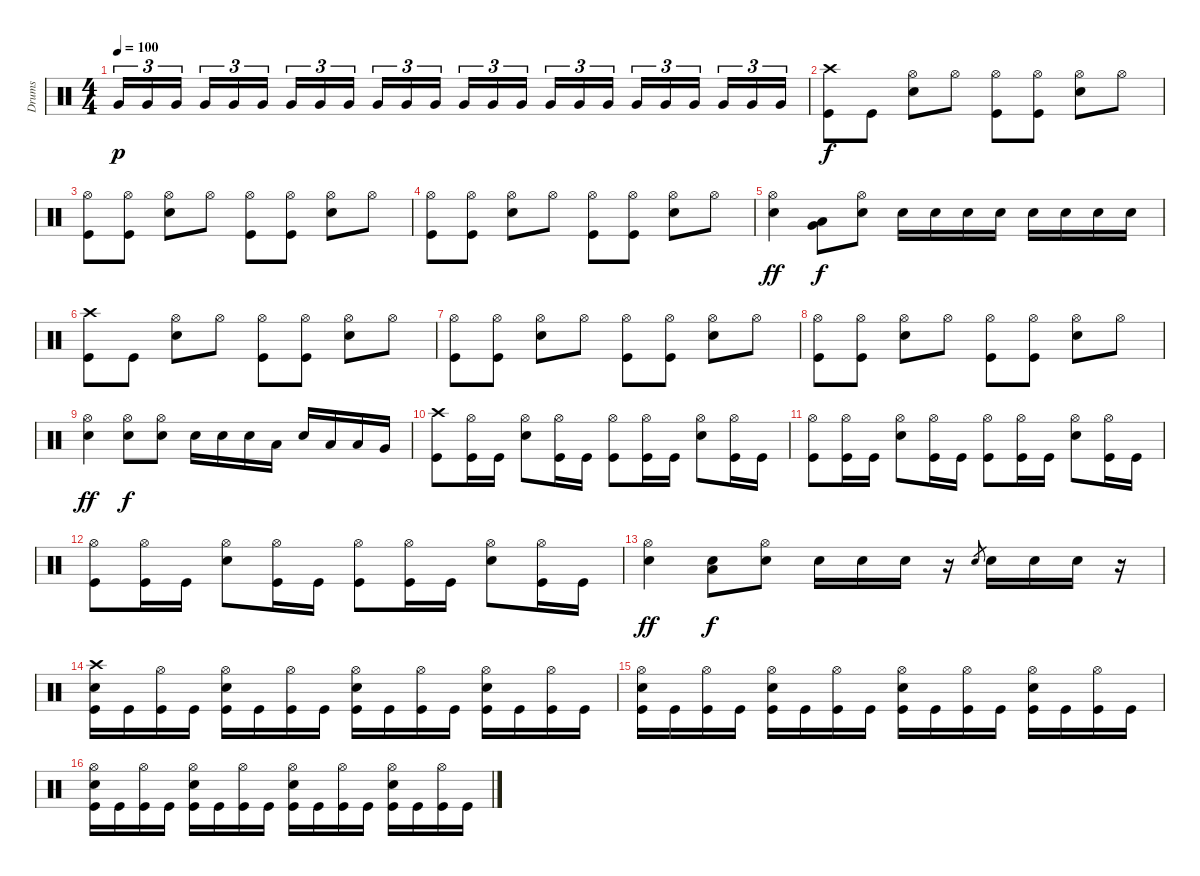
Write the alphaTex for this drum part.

\track ("Drums" "Drums") {instrument percussion}
\staff {score}
\articulation defaults
\ts (4 4)
\tempo 100
\clef neutral
\ks c "Very Low Tom (hit)".16{tu (3 2) dy p} "Very Low Tom (hit)".16{tu (3 2)} "Very Low Tom (hit)".16{tu (3 2)} "Very Low Tom (hit)".16{tu (3 2)} "Very Low Tom (hit)".16{tu (3 2)} "Very Low Tom (hit)".16{tu (3 2)} "Very Low Tom (hit)".16{tu (3 2)} "Very Low Tom (hit)".16{tu (3 2)} "Very Low Tom (hit)".16{tu (3 2)} "Very Low Tom (hit)".16{tu (3 2)} "Very Low Tom (hit)".16{tu (3 2)} "Very Low Tom (hit)".16{tu (3 2)} "Very Low Tom (hit)".16{tu (3 2)} "Very Low Tom (hit)".16{tu (3 2)} "Very Low Tom (hit)".16{tu (3 2)} "Very Low Tom (hit)".16{tu (3 2)} "Very Low Tom (hit)".16{tu (3 2)} "Very Low Tom (hit)".16{tu (3 2)} "Very Low Tom (hit)".16{tu (3 2)} "Very Low Tom (hit)".16{tu (3 2)} "Very Low Tom (hit)".16{tu (3 2)} "Very Low Tom (hit)".16{tu (3 2)} "Very Low Tom (hit)".16{tu (3 2)} "Very Low Tom (hit)".16{tu (3 2)}
|
("Crash high (hit)" "Kick (hit)").8{dy f} "Kick (hit)".8 ("Hi-Hat (open)" "Snare (hit) 2").8 "Hi-Hat (open)".8 ("Hi-Hat (open)" "Kick (hit)").8 ("Hi-Hat (open)" "Kick (hit)").8 ("Hi-Hat (open)" "Snare (hit) 2").8 "Hi-Hat (open)".8 |
("Hi-Hat (open)" "Kick (hit)").8 ("Hi-Hat (open)" "Kick (hit)").8 ("Hi-Hat (open)" "Snare (hit) 2").8 "Hi-Hat (open)".8 ("Hi-Hat (open)" "Kick (hit)").8 ("Hi-Hat (open)" "Kick (hit)").8 ("Hi-Hat (open)" "Snare (hit) 2").8 "Hi-Hat (open)".8 |
("Hi-Hat (open)" "Kick (hit)").8 ("Hi-Hat (open)" "Kick (hit)").8 ("Hi-Hat (open)" "Snare (hit) 2").8 "Hi-Hat (open)".8 ("Hi-Hat (open)" "Kick (hit)").8 ("Hi-Hat (open)" "Kick (hit)").8 ("Hi-Hat (open)" "Snare (hit) 2").8 "Hi-Hat (open)".8 |
("Hi-Hat (open)" "Snare (hit) 2").4{dy ff} ("Very Low Tom (hit)" "Low Floor Tom (hit)").8{dy f} ("Hi-Hat (open)" "Snare (hit) 2").8 "Snare (hit) 2".16 "Snare (hit) 2".16 "Snare (hit) 2".16 "Snare (hit) 2".16 "Snare (hit) 2".16 "Snare (hit) 2".16 "Snare (hit) 2".16 "Snare (hit) 2".16 |
("Crash high (hit)" "Kick (hit)").8 "Kick (hit)".8 ("Hi-Hat (open)" "Snare (hit) 2").8 "Hi-Hat (open)".8 ("Hi-Hat (open)" "Kick (hit)").8 ("Hi-Hat (open)" "Kick (hit)").8 ("Hi-Hat (open)" "Snare (hit) 2").8 "Hi-Hat (open)".8 |
("Hi-Hat (open)" "Kick (hit)").8 ("Hi-Hat (open)" "Kick (hit)").8 ("Hi-Hat (open)" "Snare (hit) 2").8 "Hi-Hat (open)".8 ("Hi-Hat (open)" "Kick (hit)").8 ("Hi-Hat (open)" "Kick (hit)").8 ("Hi-Hat (open)" "Snare (hit) 2").8 "Hi-Hat (open)".8 |
("Hi-Hat (open)" "Kick (hit)").8 ("Hi-Hat (open)" "Kick (hit)").8 ("Hi-Hat (open)" "Snare (hit) 2").8 "Hi-Hat (open)".8 ("Hi-Hat (open)" "Kick (hit)").8 ("Hi-Hat (open)" "Kick (hit)").8 ("Hi-Hat (open)" "Snare (hit) 2").8 "Hi-Hat (open)".8 |
("Hi-Hat (open)" "Snare (hit) 2").4{dy ff} ("Hi-Hat (open)" "Snare (hit) 2").8{dy f} ("Hi-Hat (open)" "Snare (hit) 2").8 "Snare (hit) 2".16 "Snare (hit) 2".16 "Snare (hit) 2".16 "Low Tom (hit)".16 "Snare (hit) 2".16 "Low Tom (hit)".16 "Low Tom (hit)".16 "Very Low Tom (hit)".16 |
("Crash high (hit)" "Kick (hit)").8 ("Hi-Hat (open)" "Kick (hit)").16 "Kick (hit)".16 ("Hi-Hat (open)" "Snare (hit) 2").8 ("Hi-Hat (open)" "Kick (hit)").16 "Kick (hit)".16 ("Hi-Hat (open)" "Kick (hit)").8 ("Hi-Hat (open)" "Kick (hit)").16 "Kick (hit)".16 ("Hi-Hat (open)" "Snare (hit) 2").8 ("Hi-Hat (open)" "Kick (hit)").16 "Kick (hit)".16 |
("Hi-Hat (open)" "Kick (hit)").8 ("Hi-Hat (open)" "Kick (hit)").16 "Kick (hit)".16 ("Hi-Hat (open)" "Snare (hit) 2").8 ("Hi-Hat (open)" "Kick (hit)").16 "Kick (hit)".16 ("Hi-Hat (open)" "Kick (hit)").8 ("Hi-Hat (open)" "Kick (hit)").16 "Kick (hit)".16 ("Hi-Hat (open)" "Snare (hit) 2").8 ("Hi-Hat (open)" "Kick (hit)").16 "Kick (hit)".16 |
("Hi-Hat (open)" "Kick (hit)").8 ("Hi-Hat (open)" "Kick (hit)").16 "Kick (hit)".16 ("Hi-Hat (open)" "Snare (hit) 2").8 ("Hi-Hat (open)" "Kick (hit)").16 "Kick (hit)".16 ("Hi-Hat (open)" "Kick (hit)").8 ("Hi-Hat (open)" "Kick (hit)").16 "Kick (hit)".16 ("Hi-Hat (open)" "Snare (hit) 2").8 ("Hi-Hat (open)" "Kick (hit)").16 "Kick (hit)".16 |
("Hi-Hat (open)" "Snare (hit) 2").4{dy ff} ("Snare (hit) 2" "Low Floor Tom (hit)").8{dy f} ("Hi-Hat (open)" "Snare (hit) 2").8 "Snare (hit) 2".16 "Snare (hit) 2".16 "Snare (hit) 2".16 r.16 "Snare (hit) 2".8{gr} "Snare (hit) 2".16 "Snare (hit) 2".16 "Snare (hit) 2".16 r.16 |
("Crash high (hit)" "Snare (hit) 2" "Kick (hit)").16 "Kick (hit)".16 ("Hi-Hat (open)" "Kick (hit)").16 "Kick (hit)".16 ("Hi-Hat (open)" "Snare (hit) 2" "Kick (hit)").16 "Kick (hit)".16 ("Hi-Hat (open)" "Kick (hit)").16 "Kick (hit)".16 ("Hi-Hat (open)" "Snare (hit) 2" "Kick (hit)").16 "Kick (hit)".16 ("Hi-Hat (open)" "Kick (hit)").16 "Kick (hit)".16 ("Hi-Hat (open)" "Snare (hit) 2" "Kick (hit)").16 "Kick (hit)".16 ("Hi-Hat (open)" "Kick (hit)").16 "Kick (hit)".16 |
("Hi-Hat (open)" "Snare (hit) 2" "Kick (hit)").16 "Kick (hit)".16 ("Hi-Hat (open)" "Kick (hit)").16 "Kick (hit)".16 ("Hi-Hat (open)" "Snare (hit) 2" "Kick (hit)").16 "Kick (hit)".16 ("Hi-Hat (open)" "Kick (hit)").16 "Kick (hit)".16 ("Hi-Hat (open)" "Snare (hit) 2" "Kick (hit)").16 "Kick (hit)".16 ("Hi-Hat (open)" "Kick (hit)").16 "Kick (hit)".16 ("Hi-Hat (open)" "Snare (hit) 2" "Kick (hit)").16 "Kick (hit)".16 ("Hi-Hat (open)" "Kick (hit)").16 "Kick (hit)".16 |
("Hi-Hat (open)" "Snare (hit) 2" "Kick (hit)").16 "Kick (hit)".16 ("Hi-Hat (open)" "Kick (hit)").16 "Kick (hit)".16 ("Hi-Hat (open)" "Snare (hit) 2" "Kick (hit)").16 "Kick (hit)".16 ("Hi-Hat (open)" "Kick (hit)").16 "Kick (hit)".16 ("Hi-Hat (open)" "Snare (hit) 2" "Kick (hit)").16 "Kick (hit)".16 ("Hi-Hat (open)" "Kick (hit)").16 "Kick (hit)".16 ("Hi-Hat (open)" "Snare (hit) 2" "Kick (hit)").16 "Kick (hit)".16 ("Hi-Hat (open)" "Kick (hit)").16 "Kick (hit)".16
